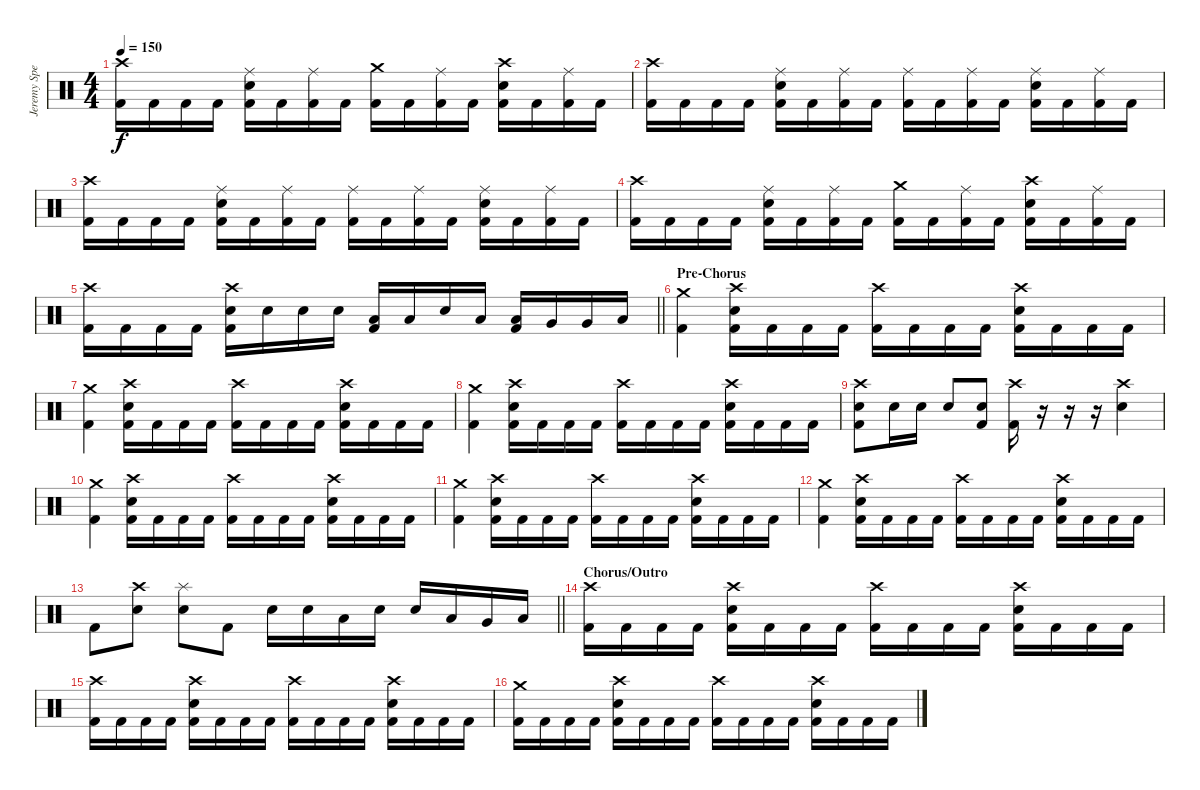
\track ("Jeremy Spencer – Drums" "Jeremy Spe") {instrument percussion}
\staff {score}
\articulation defaults
\ts (4 4)
\tempo 150
\clef neutral
\ks c
("Crash high (hit)" "Kick (hit) 2").16{dy f} "Kick (hit) 2".16 "Kick (hit) 2".16 "Kick (hit) 2".16 ("Ride (middle)" "Snare (hit) 2" "Kick (hit) 2").16 "Kick (hit) 2".16 ("Ride (middle)" "Kick (hit) 2").16 "Kick (hit) 2".16 ("Crash medium (hit)" "Kick (hit) 2").16 "Kick (hit) 2".16 ("Ride (middle)" "Kick (hit) 2").16 "Kick (hit) 2".16 ("Crash high (hit)" "Snare (hit) 2" "Kick (hit) 2").16 "Kick (hit) 2".16 ("Ride (middle)" "Kick (hit) 2").16 "Kick (hit) 2".16 |
("Crash high (hit)" "Kick (hit) 2").16 "Kick (hit) 2".16 "Kick (hit) 2".16 "Kick (hit) 2".16 ("Ride (middle)" "Snare (hit) 2" "Kick (hit) 2").16 "Kick (hit) 2".16 ("Ride (middle)" "Kick (hit) 2").16 "Kick (hit) 2".16 ("Ride (middle)" "Kick (hit) 2").16 "Kick (hit) 2".16 ("Ride (middle)" "Kick (hit) 2").16 "Kick (hit) 2".16 ("Ride (middle)" "Snare (hit) 2" "Kick (hit) 2").16 "Kick (hit) 2".16 ("Ride (middle)" "Kick (hit) 2").16 "Kick (hit) 2".16 |
("Crash high (hit)" "Kick (hit) 2").16 "Kick (hit) 2".16 "Kick (hit) 2".16 "Kick (hit) 2".16 ("Ride (middle)" "Snare (hit) 2" "Kick (hit) 2").16 "Kick (hit) 2".16 ("Ride (middle)" "Kick (hit) 2").16 "Kick (hit) 2".16 ("Ride (middle)" "Kick (hit) 2").16 "Kick (hit) 2".16 ("Ride (middle)" "Kick (hit) 2").16 "Kick (hit) 2".16 ("Ride (middle)" "Snare (hit) 2" "Kick (hit) 2").16 "Kick (hit) 2".16 ("Ride (middle)" "Kick (hit) 2").16 "Kick (hit) 2".16 |
("Crash high (hit)" "Kick (hit) 2").16 "Kick (hit) 2".16 "Kick (hit) 2".16 "Kick (hit) 2".16 ("Ride (middle)" "Snare (hit) 2" "Kick (hit) 2").16 "Kick (hit) 2".16 ("Ride (middle)" "Kick (hit) 2").16 "Kick (hit) 2".16 ("Crash medium (hit)" "Kick (hit) 2").16 "Kick (hit) 2".16 ("Ride (middle)" "Kick (hit) 2").16 "Kick (hit) 2".16 ("Crash high (hit)" "Snare (hit) 2" "Kick (hit) 2").16 "Kick (hit) 2".16 ("Ride (middle)" "Kick (hit) 2").16 "Kick (hit) 2".16 |
\barLineRight lightlight
("Crash high (hit)" "Kick (hit) 2").16 "Kick (hit) 2".16 "Kick (hit) 2".16 "Kick (hit) 2".16 ("Crash high (hit)" "Snare (hit) 2" "Kick (hit) 2").16 "Snare (hit) 2".16 "Snare (hit) 2".16 "Snare (hit) 2".16 ("Low Tom (hit)" "Kick (hit) 2").16 "Low Tom (hit)".16 "Snare (hit) 2".16 "Low Tom (hit)".16 ("Low Tom (hit)" "Kick (hit) 2").16 "Very Low Tom (hit)".16 "Very Low Tom (hit)".16 "Low Floor Tom (hit)".16 |
\section ("" "Pre-Chorus")
("Crash medium (hit)" "Kick (hit) 2").4 ("Crash high (hit)" "Snare (hit) 2" "Kick (hit) 2").16 "Kick (hit) 2".16 "Kick (hit) 2".16 "Kick (hit) 2".16 ("Crash high (hit)" "Kick (hit) 2").16 "Kick (hit) 2".16 "Kick (hit) 2".16 "Kick (hit) 2".16 ("Crash high (hit)" "Snare (hit) 2" "Kick (hit) 2").16 "Kick (hit) 2".16 "Kick (hit) 2".16 "Kick (hit) 2".16 |
("Crash medium (hit)" "Kick (hit) 2").4 ("Crash high (hit)" "Snare (hit) 2" "Kick (hit) 2").16 "Kick (hit) 2".16 "Kick (hit) 2".16 "Kick (hit) 2".16 ("Crash high (hit)" "Kick (hit) 2").16 "Kick (hit) 2".16 "Kick (hit) 2".16 "Kick (hit) 2".16 ("Crash high (hit)" "Snare (hit) 2" "Kick (hit) 2").16 "Kick (hit) 2".16 "Kick (hit) 2".16 "Kick (hit) 2".16 |
("Crash medium (hit)" "Kick (hit) 2").4 ("Crash high (hit)" "Snare (hit) 2" "Kick (hit) 2").16 "Kick (hit) 2".16 "Kick (hit) 2".16 "Kick (hit) 2".16 ("Crash high (hit)" "Kick (hit) 2").16 "Kick (hit) 2".16 "Kick (hit) 2".16 "Kick (hit) 2".16 ("Crash high (hit)" "Snare (hit) 2" "Kick (hit) 2").16 "Kick (hit) 2".16 "Kick (hit) 2".16 "Kick (hit) 2".16 |
("Crash high (hit)" "Snare (hit) 2" "Kick (hit) 2").8 "Snare (hit) 2".16 "Snare (hit) 2".16 "Snare (hit) 2".8 ("Snare (hit) 2" "Kick (hit) 2").8 ("Crash high (hit)" "Kick (hit) 2").16 r.16 r.16 r.16 ("Crash high (hit)" "Snare (hit) 2").4 |
("Crash medium (hit)" "Kick (hit) 2").4 ("Crash high (hit)" "Snare (hit) 2" "Kick (hit) 2").16 "Kick (hit) 2".16 "Kick (hit) 2".16 "Kick (hit) 2".16 ("Crash high (hit)" "Kick (hit) 2").16 "Kick (hit) 2".16 "Kick (hit) 2".16 "Kick (hit) 2".16 ("Crash high (hit)" "Snare (hit) 2" "Kick (hit) 2").16 "Kick (hit) 2".16 "Kick (hit) 2".16 "Kick (hit) 2".16 |
("Crash medium (hit)" "Kick (hit) 2").4 ("Crash high (hit)" "Snare (hit) 2" "Kick (hit) 2").16 "Kick (hit) 2".16 "Kick (hit) 2".16 "Kick (hit) 2".16 ("Crash high (hit)" "Kick (hit) 2").16 "Kick (hit) 2".16 "Kick (hit) 2".16 "Kick (hit) 2".16 ("Crash high (hit)" "Snare (hit) 2" "Kick (hit) 2").16 "Kick (hit) 2".16 "Kick (hit) 2".16 "Kick (hit) 2".16 |
("Crash medium (hit)" "Kick (hit) 2").4 ("Crash high (hit)" "Snare (hit) 2" "Kick (hit) 2").16 "Kick (hit) 2".16 "Kick (hit) 2".16 "Kick (hit) 2".16 ("Crash high (hit)" "Kick (hit) 2").16 "Kick (hit) 2".16 "Kick (hit) 2".16 "Kick (hit) 2".16 ("Crash high (hit)" "Snare (hit) 2" "Kick (hit) 2").16 "Kick (hit) 2".16 "Kick (hit) 2".16 "Kick (hit) 2".16 |
\barLineRight lightlight "Kick (hit) 2".8
("Crash high (hit)" "Snare (hit) 2").8 ("Splash (hit)" "Snare (hit) 2").8 "Kick (hit) 2".8 "Snare (hit) 2".16 "Snare (hit) 2".16 "Low Tom (hit)".16 "Snare (hit) 2".16 "Snare (hit) 2".16 "Low Tom (hit)".16 "Very Low Tom (hit)".16 "Low Floor Tom (hit)".16 |
\section ("" "Chorus/Outro")
("Crash high (hit)" "Kick (hit) 2").16 "Kick (hit) 2".16 "Kick (hit) 2".16 "Kick (hit) 2".16 ("Crash high (hit)" "Snare (hit) 2" "Kick (hit) 2").16 "Kick (hit) 2".16 "Kick (hit) 2".16 "Kick (hit) 2".16 ("Crash high (hit)" "Kick (hit) 2").16 "Kick (hit) 2".16 "Kick (hit) 2".16 "Kick (hit) 2".16 ("Crash high (hit)" "Snare (hit) 2" "Kick (hit) 2").16 "Kick (hit) 2".16 "Kick (hit) 2".16 "Kick (hit) 2".16 |
("Crash high (hit)" "Kick (hit) 2").16 "Kick (hit) 2".16 "Kick (hit) 2".16 "Kick (hit) 2".16 ("Crash high (hit)" "Snare (hit) 2" "Kick (hit) 2").16 "Kick (hit) 2".16 "Kick (hit) 2".16 "Kick (hit) 2".16 ("Crash high (hit)" "Kick (hit) 2").16 "Kick (hit) 2".16 "Kick (hit) 2".16 "Kick (hit) 2".16 ("Crash high (hit)" "Snare (hit) 2" "Kick (hit) 2").16 "Kick (hit) 2".16 "Kick (hit) 2".16 "Kick (hit) 2".16 |
("Crash medium (hit)" "Kick (hit) 2").16 "Kick (hit) 2".16 "Kick (hit) 2".16 "Kick (hit) 2".16 ("Crash high (hit)" "Snare (hit) 2" "Kick (hit) 2").16 "Kick (hit) 2".16 "Kick (hit) 2".16 "Kick (hit) 2".16 ("Crash high (hit)" "Kick (hit) 2").16 "Kick (hit) 2".16 "Kick (hit) 2".16 "Kick (hit) 2".16 ("Crash high (hit)" "Snare (hit) 2" "Kick (hit) 2").16 "Kick (hit) 2".16 "Kick (hit) 2".16 "Kick (hit) 2".16
